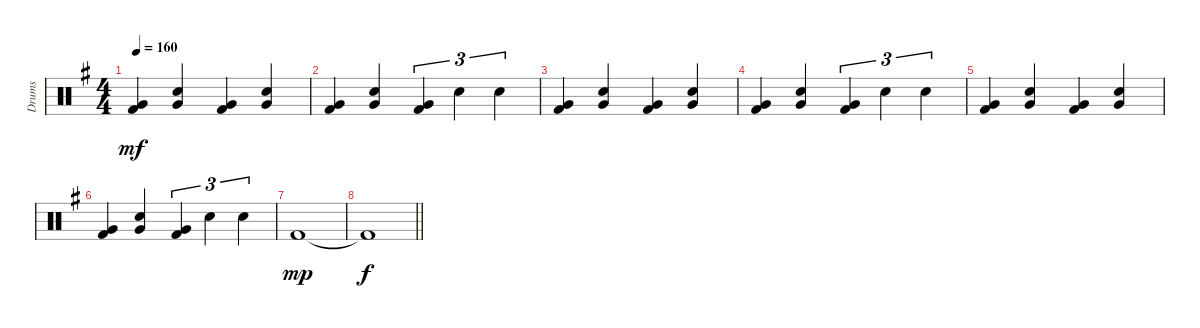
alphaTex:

\track ("Drums" "Drums") {instrument percussion}
\staff {score}
\articulation defaults
\ts (4 4)
\tempo 160
\clef neutral
\ks g
("Very Low Tom (hit)" "Kick (hit) 2").4{dy mf} ("Very Low Tom (hit)" "Snare (hit) 2").4 ("Very Low Tom (hit)" "Kick (hit) 2").4 ("Very Low Tom (hit)" "Snare (hit) 2").4 |
("Very Low Tom (hit)" "Kick (hit) 2").4 ("Very Low Tom (hit)" "Snare (hit) 2").4 ("Very Low Tom (hit)" "Kick (hit) 2").4{tu (3 2)} "Snare (hit) 2".4{tu (3 2)} "Snare (hit) 2".4{tu (3 2)} |
("Very Low Tom (hit)" "Kick (hit) 2").4 ("Very Low Tom (hit)" "Snare (hit) 2").4 ("Very Low Tom (hit)" "Kick (hit) 2").4 ("Very Low Tom (hit)" "Snare (hit) 2").4 |
("Very Low Tom (hit)" "Kick (hit) 2").4 ("Very Low Tom (hit)" "Snare (hit) 2").4 ("Very Low Tom (hit)" "Kick (hit) 2").4{tu (3 2)} "Snare (hit) 2".4{tu (3 2)} "Snare (hit) 2".4{tu (3 2)} |
("Very Low Tom (hit)" "Kick (hit) 2").4 ("Very Low Tom (hit)" "Snare (hit) 2").4 ("Very Low Tom (hit)" "Kick (hit) 2").4 ("Very Low Tom (hit)" "Snare (hit) 2").4 |
("Very Low Tom (hit)" "Kick (hit) 2").4 ("Very Low Tom (hit)" "Snare (hit) 2").4 ("Very Low Tom (hit)" "Kick (hit) 2").4{tu (3 2)} "Snare (hit) 2".4{tu (3 2)} "Snare (hit) 2".4{tu (3 2)} |
"Kick (hit) 2".1{dy mp} |
\barLineRight lightlight "Kick (hit) 2"{t}.1{dy f}
